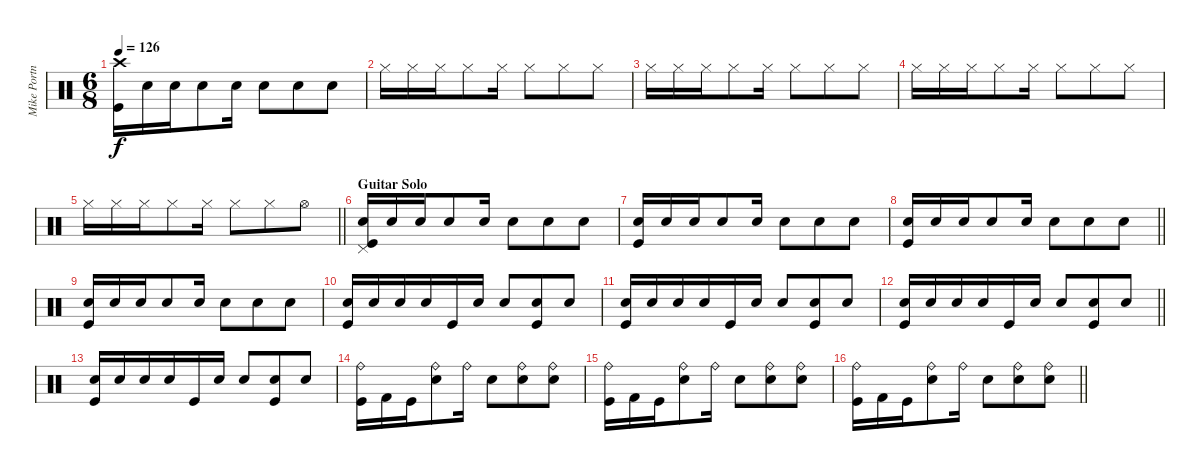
\track ("Mike Portnoy" "Mike Portn") {instrument percussion}
\staff {score}
\articulation defaults
\ts (6 8)
\tempo 126
\clef neutral
\ks aminor
("Kick (hit)" "Crash high (hit)").16{dy f} "Snare (hit) 2".16 "Snare (hit) 2".16 "Snare (hit) 2".8 "Snare (hit) 2".16 "Snare (hit) 2".8 "Snare (hit) 2".8 "Snare (hit) 2".8 |
"Hi-Hat (closed)".16 "Hi-Hat (closed)".16 "Hi-Hat (closed)".16 "Hi-Hat (closed)".8 "Hi-Hat (closed)".16 "Hi-Hat (closed)".8 "Hi-Hat (closed)".8 "Hi-Hat (closed)".8 |
"Hi-Hat (closed)".16 "Hi-Hat (closed)".16 "Hi-Hat (closed)".16 "Hi-Hat (closed)".8 "Hi-Hat (closed)".16 "Hi-Hat (closed)".8 "Hi-Hat (closed)".8 "Hi-Hat (closed)".8 |
"Hi-Hat (closed)".16 "Hi-Hat (closed)".16 "Hi-Hat (closed)".16 "Hi-Hat (closed)".8 "Hi-Hat (closed)".16 "Hi-Hat (closed)".8 "Hi-Hat (closed)".8 "Hi-Hat (closed)".8 |
\barLineRight lightlight "Hi-Hat (closed)".16 "Hi-Hat (closed)".16 "Hi-Hat (closed)".16 "Hi-Hat (closed)".8 "Hi-Hat (closed)".16 "Hi-Hat (closed)".8 "Hi-Hat (closed)".8 "Hi-Hat (open)".8
|
\section ("" "Guitar Solo")
("Pedal Hi-Hat (hit)" "Kick (hit)" "Snare (hit) 2").16 "Snare (hit) 2".16 "Snare (hit) 2".16 "Snare (hit) 2".8 "Snare (hit) 2".16 "Snare (hit) 2".8 "Snare (hit) 2".8 "Snare (hit) 2".8 |
("Kick (hit)" "Snare (hit) 2").16 "Snare (hit) 2".16 "Snare (hit) 2".16 "Snare (hit) 2".8 "Snare (hit) 2".16 "Snare (hit) 2".8 "Snare (hit) 2".8 "Snare (hit) 2".8 |
\barLineRight lightlight
("Kick (hit)" "Snare (hit) 2").16 "Snare (hit) 2".16 "Snare (hit) 2".16 "Snare (hit) 2".8 "Snare (hit) 2".16 "Snare (hit) 2".8 "Snare (hit) 2".8 "Snare (hit) 2".8 |
("Kick (hit)" "Snare (hit) 2").16 "Snare (hit) 2".16 "Snare (hit) 2".16 "Snare (hit) 2".8 "Snare (hit) 2".16 "Snare (hit) 2".8 "Snare (hit) 2".8 "Snare (hit) 2".8 |
("Kick (hit)" "Snare (hit) 2").16 "Snare (hit) 2".16 "Snare (hit) 2".16 "Snare (hit) 2".16 "Kick (hit)".16 "Snare (hit) 2".16 "Snare (hit) 2".8 ("Snare (hit) 2" "Kick (hit)").8 "Snare (hit) 2".8 |
("Kick (hit)" "Snare (hit) 2").16 "Snare (hit) 2".16 "Snare (hit) 2".16 "Snare (hit) 2".16 "Kick (hit)".16 "Snare (hit) 2".16 "Snare (hit) 2".8 ("Snare (hit) 2" "Kick (hit)").8 "Snare (hit) 2".8 |
\barLineRight lightlight
("Kick (hit)" "Snare (hit) 2").16 "Snare (hit) 2".16 "Snare (hit) 2".16 "Snare (hit) 2".16 "Kick (hit)".16 "Snare (hit) 2".16 "Snare (hit) 2".8 ("Snare (hit) 2" "Kick (hit)").8 "Snare (hit) 2".8 |
("Kick (hit)" "Snare (hit) 2").16 "Snare (hit) 2".16 "Snare (hit) 2".16 "Snare (hit) 2".16 "Kick (hit)".16 "Snare (hit) 2".16 "Snare (hit) 2".8 ("Snare (hit) 2" "Kick (hit)").8 "Snare (hit) 2".8 |
("Ride (bell)" "Kick (hit)").16 "Kick (hit) 2".16 "Kick (hit)".16 ("Ride (bell)" "Snare (hit) 2").8 "Ride (bell)".16 "Snare (hit) 2".8 ("Ride (bell)" "Snare (hit) 2").8 ("Ride (bell)" "Snare (hit) 2").8 |
("Ride (bell)" "Kick (hit)").16 "Kick (hit) 2".16 "Kick (hit)".16 ("Ride (bell)" "Snare (hit) 2").8 "Ride (bell)".16 "Snare (hit) 2".8 ("Ride (bell)" "Snare (hit) 2").8 ("Ride (bell)" "Snare (hit) 2").8 |
\barLineRight lightlight
("Ride (bell)" "Kick (hit)").16 "Kick (hit) 2".16 "Kick (hit)".16 ("Ride (bell)" "Snare (hit) 2").8 "Ride (bell)".16 "Snare (hit) 2".8 ("Ride (bell)" "Snare (hit) 2").8 ("Ride (bell)" "Snare (hit) 2").8
